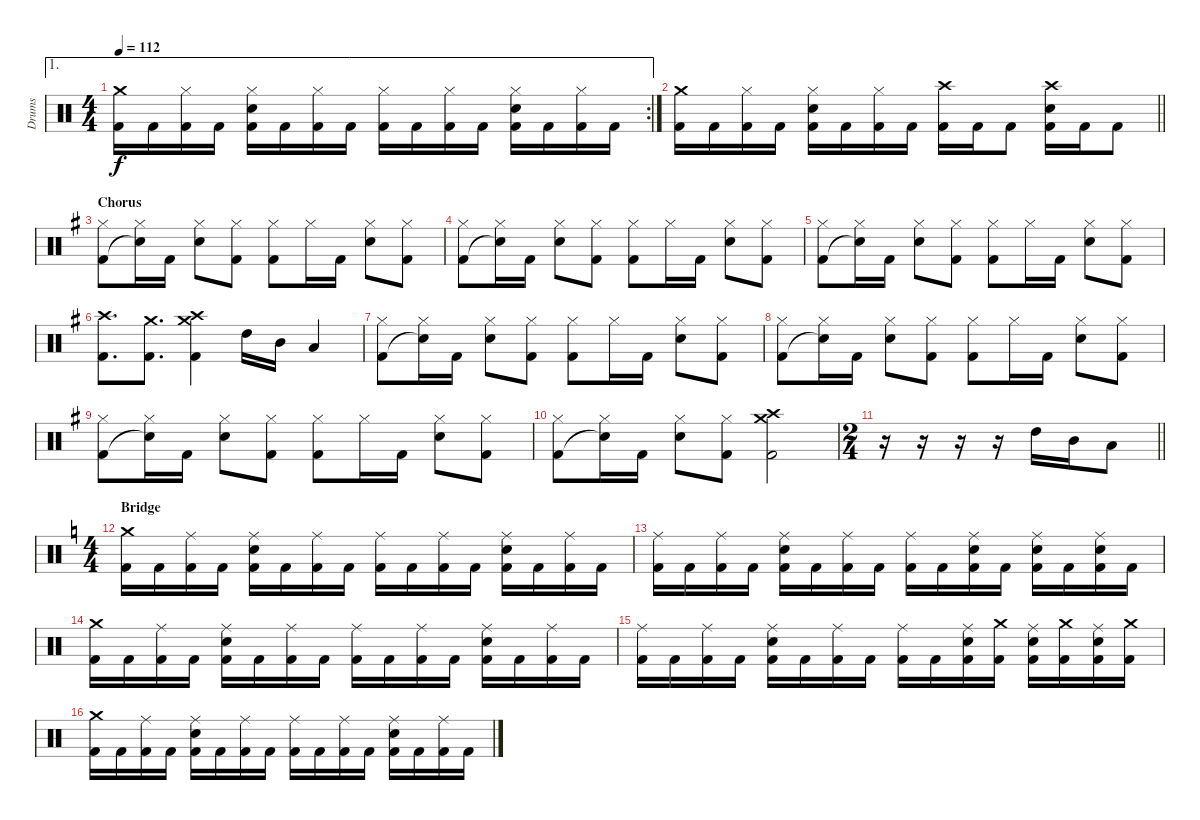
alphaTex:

\track ("Drums" "Drums") {instrument percussion}
\staff {score}
\articulation defaults
\ae 1
\rc 2
\ts (4 4)
\tempo 112
\clef neutral
\ks c
("Kick (hit) 2" "Crash medium (hit)").16{dy f} "Kick (hit) 2".16 ("Kick (hit) 2" "Hi-Hat (closed)").16 "Kick (hit) 2".16 ("Kick (hit) 2" "Hi-Hat (closed)" "Snare (hit) 2").16 "Kick (hit) 2".16 ("Kick (hit) 2" "Hi-Hat (closed)").16 "Kick (hit) 2".16 ("Kick (hit) 2" "Hi-Hat (closed)").16 "Kick (hit) 2".16 ("Kick (hit) 2" "Hi-Hat (closed)").16 "Kick (hit) 2".16 ("Kick (hit) 2" "Hi-Hat (closed)" "Snare (hit) 2").16 "Kick (hit) 2".16 ("Kick (hit) 2" "Hi-Hat (closed)").16 "Kick (hit) 2".16 |
\barLineRight lightlight
("Kick (hit) 2" "Crash medium (hit)").16 "Kick (hit) 2".16 ("Kick (hit) 2" "Hi-Hat (closed)").16 "Kick (hit) 2".16 ("Kick (hit) 2" "Hi-Hat (closed)" "Snare (hit) 2").16 "Kick (hit) 2".16 ("Kick (hit) 2" "Hi-Hat (closed)").16 "Kick (hit) 2".16 ("Kick (hit) 2" "Crash high (hit)").16 "Kick (hit) 2".16 "Kick (hit) 2".8 ("Kick (hit) 2" "Crash high (hit)" "Snare (hit) 2").16 "Kick (hit) 2".16 "Kick (hit) 2".8 |
\section ("" "Chorus")
\ks g
("Kick (hit) 2" "Hi-Hat (closed)").8 ("Snare (hit)"{t} "Hi-Hat (closed)").16 "Kick (hit) 2".16 ("Snare (hit) 2" "Hi-Hat (closed)").8 ("Kick (hit) 2" "Hi-Hat (closed)").8 ("Kick (hit) 2" "Hi-Hat (closed)").8 "Hi-Hat (closed)".16 "Kick (hit) 2".16 ("Snare (hit) 2" "Hi-Hat (closed)").8 ("Kick (hit) 2" "Hi-Hat (closed)").8 |
("Kick (hit) 2" "Hi-Hat (closed)").8 ("Snare (hit)"{t} "Hi-Hat (closed)").16 "Kick (hit) 2".16 ("Snare (hit) 2" "Hi-Hat (closed)").8 ("Kick (hit) 2" "Hi-Hat (closed)").8 ("Kick (hit) 2" "Hi-Hat (closed)").8 "Hi-Hat (closed)".16 "Kick (hit) 2".16 ("Snare (hit) 2" "Hi-Hat (closed)").8 ("Kick (hit) 2" "Hi-Hat (closed)").8 |
("Kick (hit) 2" "Hi-Hat (closed)").8 ("Snare (hit)"{t} "Hi-Hat (closed)").16 "Kick (hit) 2".16 ("Snare (hit) 2" "Hi-Hat (closed)").8 ("Kick (hit) 2" "Hi-Hat (closed)").8 ("Kick (hit) 2" "Hi-Hat (closed)").8 "Hi-Hat (closed)".16 "Kick (hit) 2".16 ("Snare (hit) 2" "Hi-Hat (closed)").8 ("Kick (hit) 2" "Hi-Hat (closed)").8 |
("Kick (hit) 2" "Crash high (hit)").8{d} ("Kick (hit) 2" "Crash medium (hit)").8{d} ("Kick (hit) 2" "Crash high (hit)" "Crash medium (hit)").4 "High Tom (hit)".16 "Mid Tom (hit)".16 "Low Tom (hit)".4 |
("Kick (hit) 2" "Hi-Hat (closed)").8 ("Snare (hit)"{t} "Hi-Hat (closed)").16 "Kick (hit) 2".16 ("Snare (hit) 2" "Hi-Hat (closed)").8 ("Kick (hit) 2" "Hi-Hat (closed)").8 ("Kick (hit) 2" "Hi-Hat (closed)").8 "Hi-Hat (closed)".16 "Kick (hit) 2".16 ("Snare (hit) 2" "Hi-Hat (closed)").8 ("Kick (hit) 2" "Hi-Hat (closed)").8 |
("Kick (hit) 2" "Hi-Hat (closed)").8 ("Snare (hit)"{t} "Hi-Hat (closed)").16 "Kick (hit) 2".16 ("Snare (hit) 2" "Hi-Hat (closed)").8 ("Kick (hit) 2" "Hi-Hat (closed)").8 ("Kick (hit) 2" "Hi-Hat (closed)").8 "Hi-Hat (closed)".16 "Kick (hit) 2".16 ("Snare (hit) 2" "Hi-Hat (closed)").8 ("Kick (hit) 2" "Hi-Hat (closed)").8 |
("Kick (hit) 2" "Hi-Hat (closed)").8 ("Snare (hit)"{t} "Hi-Hat (closed)").16 "Kick (hit) 2".16 ("Snare (hit) 2" "Hi-Hat (closed)").8 ("Kick (hit) 2" "Hi-Hat (closed)").8 ("Kick (hit) 2" "Hi-Hat (closed)").8 "Hi-Hat (closed)".16 "Kick (hit) 2".16 ("Snare (hit) 2" "Hi-Hat (closed)").8 ("Kick (hit) 2" "Hi-Hat (closed)").8 |
("Kick (hit) 2" "Hi-Hat (closed)").8 ("Snare (hit)"{t} "Hi-Hat (closed)").16 "Kick (hit) 2".16 ("Snare (hit) 2" "Hi-Hat (closed)").8 ("Kick (hit) 2" "Hi-Hat (closed)").8 ("Kick (hit) 2" "Crash medium (hit)" "Crash high (hit)").2 |
\ts (2 4)
\barLineRight lightlight
r.16 r.16 r.16 r.16 "High Tom (hit)".16 "Mid Tom (hit)".16 "Low Tom (hit)".8 |
\ts (4 4)
\section ("" "Bridge")
\ks c
("Kick (hit) 2" "Crash medium (hit)").16 "Kick (hit) 2".16 ("Kick (hit) 2" "Ride (middle)").16 "Kick (hit) 2".16 ("Kick (hit) 2" "Snare (hit) 2" "Ride (middle)").16 "Kick (hit) 2".16 ("Kick (hit) 2" "Ride (middle)").16 "Kick (hit) 2".16 ("Kick (hit) 2" "Ride (middle)").16 "Kick (hit) 2".16 ("Kick (hit) 2" "Ride (middle)").16 "Kick (hit) 2".16 ("Kick (hit) 2" "Snare (hit) 2" "Ride (middle)").16 "Kick (hit) 2".16 ("Kick (hit) 2" "Ride (middle)").16 "Kick (hit) 2".16 |
("Kick (hit) 2" "Ride (middle)").16 "Kick (hit) 2".16 ("Kick (hit) 2" "Ride (middle)").16 "Kick (hit) 2".16 ("Kick (hit) 2" "Snare (hit) 2" "Ride (middle)").16 "Kick (hit) 2".16 ("Kick (hit) 2" "Ride (middle)").16 "Kick (hit) 2".16 ("Kick (hit) 2" "Ride (middle)").16 "Kick (hit) 2".16 ("Kick (hit) 2" "Snare (hit) 2" "Ride (middle)").16 "Kick (hit) 2".16 ("Kick (hit) 2" "Snare (hit) 2" "Ride (middle)").16 "Kick (hit) 2".16 ("Kick (hit) 2" "Snare (hit) 2" "Ride (middle)").16 "Kick (hit) 2".16 |
("Kick (hit) 2" "Crash medium (hit)").16 "Kick (hit) 2".16 ("Kick (hit) 2" "Ride (middle)").16 "Kick (hit) 2".16 ("Kick (hit) 2" "Snare (hit) 2" "Ride (middle)").16 "Kick (hit) 2".16 ("Kick (hit) 2" "Ride (middle)").16 "Kick (hit) 2".16 ("Kick (hit) 2" "Ride (middle)").16 "Kick (hit) 2".16 ("Kick (hit) 2" "Ride (middle)").16 "Kick (hit) 2".16 ("Kick (hit) 2" "Snare (hit) 2" "Ride (middle)").16 "Kick (hit) 2".16 ("Kick (hit) 2" "Ride (middle)").16 "Kick (hit) 2".16 |
("Kick (hit) 2" "Ride (middle)").16 "Kick (hit) 2".16 ("Kick (hit) 2" "Ride (middle)").16 "Kick (hit) 2".16 ("Kick (hit) 2" "Snare (hit) 2" "Ride (middle)").16 "Kick (hit) 2".16 ("Kick (hit) 2" "Ride (middle)").16 "Kick (hit) 2".16 ("Kick (hit) 2" "Ride (middle)").16 "Kick (hit) 2".16 ("Kick (hit) 2" "Snare (hit) 2" "Ride (middle)").16 ("Kick (hit) 2" "Crash medium (hit)").16 ("Kick (hit) 2" "Snare (hit) 2" "Ride (middle)").16 ("Kick (hit) 2" "Crash medium (hit)").16 ("Kick (hit) 2" "Snare (hit) 2" "Ride (middle)").16 ("Kick (hit) 2" "Crash medium (hit)").16 |
("Kick (hit) 2" "Crash medium (hit)").16 "Kick (hit) 2".16 ("Kick (hit) 2" "Ride (middle)").16 "Kick (hit) 2".16 ("Kick (hit) 2" "Snare (hit) 2" "Ride (middle)").16 "Kick (hit) 2".16 ("Kick (hit) 2" "Ride (middle)").16 "Kick (hit) 2".16 ("Kick (hit) 2" "Ride (middle)").16 "Kick (hit) 2".16 ("Kick (hit) 2" "Ride (middle)").16 "Kick (hit) 2".16 ("Kick (hit) 2" "Snare (hit) 2" "Ride (middle)").16 "Kick (hit) 2".16 ("Kick (hit) 2" "Ride (middle)").16 "Kick (hit) 2".16
